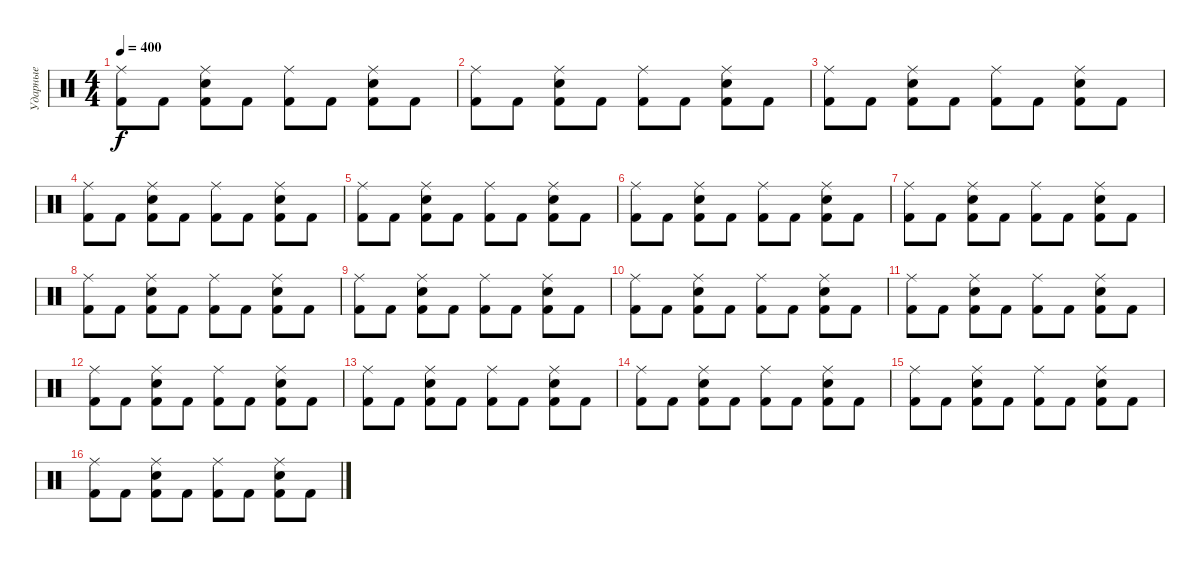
\track ("Ударные" "Ударные") {instrument percussion}
\staff {score}
\articulation defaults
\ts (4 4)
\tempo 400
\clef neutral
\ks c
("Ride (middle)" "Kick (hit) 2").8{dy f} "Kick (hit) 2".8 ("Ride (middle)" "Snare (hit) 2" "Kick (hit) 2").8 "Kick (hit) 2".8 ("Ride (middle)" "Kick (hit) 2").8 "Kick (hit) 2".8 ("Ride (middle)" "Snare (hit) 2" "Kick (hit) 2").8 "Kick (hit) 2".8 |
("Ride (middle)" "Kick (hit) 2").8 "Kick (hit) 2".8 ("Ride (middle)" "Snare (hit) 2" "Kick (hit) 2").8 "Kick (hit) 2".8 ("Ride (middle)" "Kick (hit) 2").8 "Kick (hit) 2".8 ("Ride (middle)" "Snare (hit) 2" "Kick (hit) 2").8 "Kick (hit) 2".8 |
("Ride (middle)" "Kick (hit) 2").8 "Kick (hit) 2".8 ("Ride (middle)" "Snare (hit) 2" "Kick (hit) 2").8 "Kick (hit) 2".8 ("Ride (middle)" "Kick (hit) 2").8 "Kick (hit) 2".8 ("Ride (middle)" "Snare (hit) 2" "Kick (hit) 2").8 "Kick (hit) 2".8 |
("Ride (middle)" "Kick (hit) 2").8 "Kick (hit) 2".8 ("Ride (middle)" "Snare (hit) 2" "Kick (hit) 2").8 "Kick (hit) 2".8 ("Ride (middle)" "Kick (hit) 2").8 "Kick (hit) 2".8 ("Ride (middle)" "Snare (hit) 2" "Kick (hit) 2").8 "Kick (hit) 2".8 |
("Ride (middle)" "Kick (hit) 2").8 "Kick (hit) 2".8 ("Ride (middle)" "Snare (hit) 2" "Kick (hit) 2").8 "Kick (hit) 2".8 ("Ride (middle)" "Kick (hit) 2").8 "Kick (hit) 2".8 ("Ride (middle)" "Snare (hit) 2" "Kick (hit) 2").8 "Kick (hit) 2".8 |
("Ride (middle)" "Kick (hit) 2").8 "Kick (hit) 2".8 ("Ride (middle)" "Snare (hit) 2" "Kick (hit) 2").8 "Kick (hit) 2".8 ("Ride (middle)" "Kick (hit) 2").8 "Kick (hit) 2".8 ("Ride (middle)" "Snare (hit) 2" "Kick (hit) 2").8 "Kick (hit) 2".8 |
("Ride (middle)" "Kick (hit) 2").8 "Kick (hit) 2".8 ("Ride (middle)" "Snare (hit) 2" "Kick (hit) 2").8 "Kick (hit) 2".8 ("Ride (middle)" "Kick (hit) 2").8 "Kick (hit) 2".8 ("Ride (middle)" "Snare (hit) 2" "Kick (hit) 2").8 "Kick (hit) 2".8 |
("Ride (middle)" "Kick (hit) 2").8 "Kick (hit) 2".8 ("Ride (middle)" "Snare (hit) 2" "Kick (hit) 2").8 "Kick (hit) 2".8 ("Ride (middle)" "Kick (hit) 2").8 "Kick (hit) 2".8 ("Ride (middle)" "Snare (hit) 2" "Kick (hit) 2").8 "Kick (hit) 2".8 |
("Ride (middle)" "Kick (hit) 2").8 "Kick (hit) 2".8 ("Ride (middle)" "Snare (hit) 2" "Kick (hit) 2").8 "Kick (hit) 2".8 ("Ride (middle)" "Kick (hit) 2").8 "Kick (hit) 2".8 ("Ride (middle)" "Snare (hit) 2" "Kick (hit) 2").8 "Kick (hit) 2".8 |
("Ride (middle)" "Kick (hit) 2").8 "Kick (hit) 2".8 ("Ride (middle)" "Snare (hit) 2" "Kick (hit) 2").8 "Kick (hit) 2".8 ("Ride (middle)" "Kick (hit) 2").8 "Kick (hit) 2".8 ("Ride (middle)" "Snare (hit) 2" "Kick (hit) 2").8 "Kick (hit) 2".8 |
("Ride (middle)" "Kick (hit) 2").8 "Kick (hit) 2".8 ("Ride (middle)" "Snare (hit) 2" "Kick (hit) 2").8 "Kick (hit) 2".8 ("Ride (middle)" "Kick (hit) 2").8 "Kick (hit) 2".8 ("Ride (middle)" "Snare (hit) 2" "Kick (hit) 2").8 "Kick (hit) 2".8 |
("Ride (middle)" "Kick (hit) 2").8 "Kick (hit) 2".8 ("Ride (middle)" "Snare (hit) 2" "Kick (hit) 2").8 "Kick (hit) 2".8 ("Ride (middle)" "Kick (hit) 2").8 "Kick (hit) 2".8 ("Ride (middle)" "Snare (hit) 2" "Kick (hit) 2").8 "Kick (hit) 2".8 |
("Ride (middle)" "Kick (hit) 2").8 "Kick (hit) 2".8 ("Ride (middle)" "Snare (hit) 2" "Kick (hit) 2").8 "Kick (hit) 2".8 ("Ride (middle)" "Kick (hit) 2").8 "Kick (hit) 2".8 ("Ride (middle)" "Snare (hit) 2" "Kick (hit) 2").8 "Kick (hit) 2".8 |
("Ride (middle)" "Kick (hit) 2").8 "Kick (hit) 2".8 ("Ride (middle)" "Snare (hit) 2" "Kick (hit) 2").8 "Kick (hit) 2".8 ("Ride (middle)" "Kick (hit) 2").8 "Kick (hit) 2".8 ("Ride (middle)" "Snare (hit) 2" "Kick (hit) 2").8 "Kick (hit) 2".8 |
("Ride (middle)" "Kick (hit) 2").8 "Kick (hit) 2".8 ("Ride (middle)" "Snare (hit) 2" "Kick (hit) 2").8 "Kick (hit) 2".8 ("Ride (middle)" "Kick (hit) 2").8 "Kick (hit) 2".8 ("Ride (middle)" "Snare (hit) 2" "Kick (hit) 2").8 "Kick (hit) 2".8 |
("Ride (middle)" "Kick (hit) 2").8 "Kick (hit) 2".8 ("Ride (middle)" "Snare (hit) 2" "Kick (hit) 2").8 "Kick (hit) 2".8 ("Ride (middle)" "Kick (hit) 2").8 "Kick (hit) 2".8 ("Ride (middle)" "Snare (hit) 2" "Kick (hit) 2").8 "Kick (hit) 2".8
